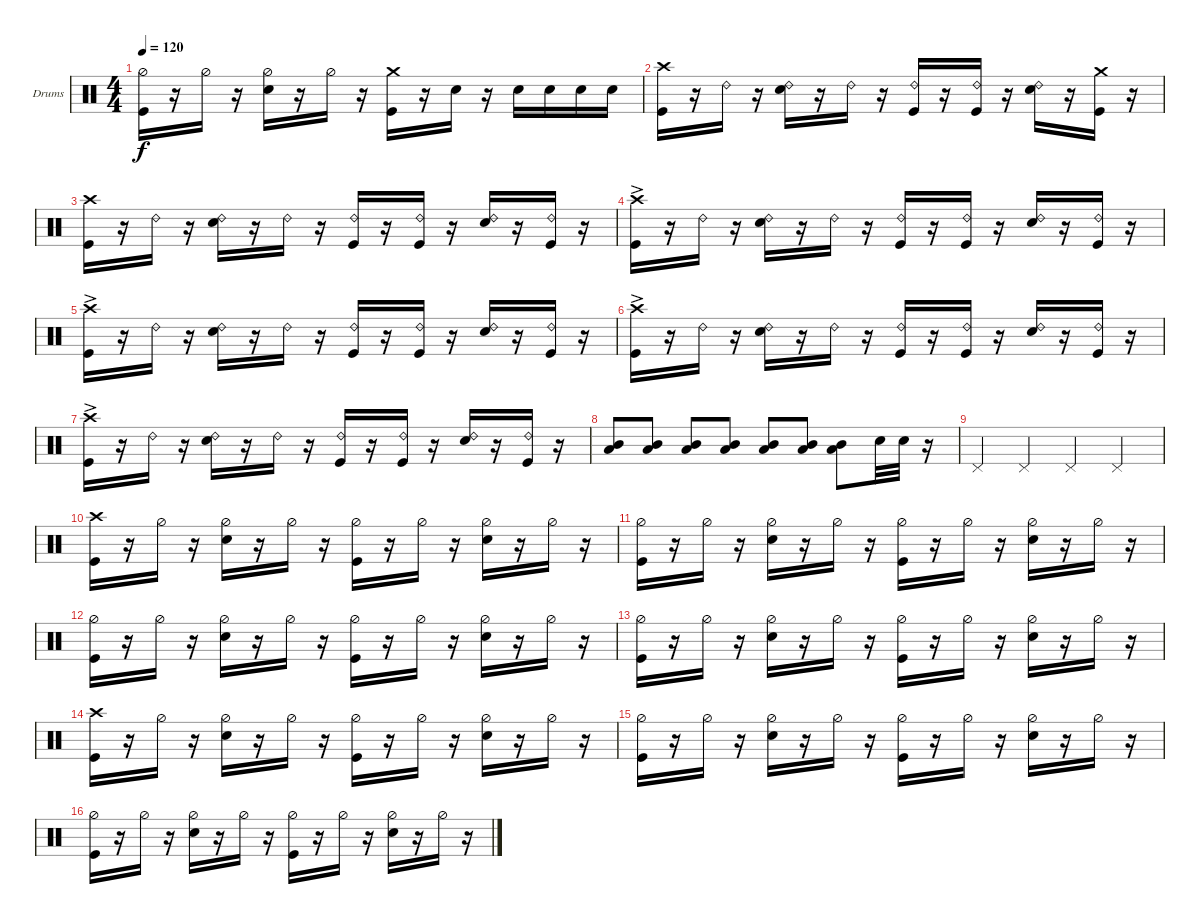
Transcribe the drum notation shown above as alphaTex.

\defaultSystemsLayout 4
\bracketExtendMode groupsimilarinstruments
\firstSystemTrackNameOrientation horizontal
\otherSystemsTrackNameOrientation horizontal
\track ("Drums  SK" "Drums") {instrument percussion}
\staff {score}
\articulation defaults
\ts (4 4)
\tempo 120
\clef neutral
\ks c
("Kick (hit)" "Hi-Hat (half)").16{dy f} r.16 "Hi-Hat (half)".16 r.16 ("Snare (hit) 2" "Hi-Hat (half)").16 r.16 "Hi-Hat (half)".16 r.16 ("Kick (hit)" "Crash medium (hit)").16 r.16 "Snare (hit) 2".16 r.16 "Snare (hit) 2".16 "Snare (hit) 2".16 "Snare (hit) 2".16 "Snare (hit) 2".16 |
("Kick (hit)" "Crash high (hit)").16 r.16 "Ride (bell) 2".16 r.16 ("Snare (hit) 2" "Ride (bell) 2").16 r.16 "Ride (bell) 2".16 r.16 ("Kick (hit)" "Ride (bell) 2").16 r.16 ("Kick (hit)" "Ride (bell) 2").16 r.16 ("Snare (hit) 2" "Ride (bell) 2").16 r.16 ("Kick (hit)" "Crash medium (hit)").16 r.16 |
("Kick (hit)" "Crash high (hit)").16 r.16 "Ride (bell) 2".16 r.16 ("Snare (hit) 2" "Ride (bell) 2").16 r.16 "Ride (bell) 2".16 r.16 ("Kick (hit)" "Ride (bell) 2").16 r.16 ("Kick (hit)" "Ride (bell) 2").16 r.16 ("Snare (hit) 2" "Ride (bell) 2").16 r.16 ("Kick (hit)" "Ride (bell) 2").16 r.16 |
("Kick (hit)"{ac} "Crash high (hit)"{ac}).16 r.16 "Ride (bell) 2".16 r.16 ("Snare (hit) 2" "Ride (bell) 2").16 r.16 "Ride (bell) 2".16 r.16 ("Kick (hit)" "Ride (bell) 2").16 r.16 ("Kick (hit)" "Ride (bell) 2").16 r.16 ("Snare (hit) 2" "Ride (bell) 2").16 r.16 ("Kick (hit)" "Ride (bell) 2").16 r.16 |
("Kick (hit)"{ac} "Crash high (hit)"{ac}).16 r.16 "Ride (bell) 2".16 r.16 ("Snare (hit) 2" "Ride (bell) 2").16 r.16 "Ride (bell) 2".16 r.16 ("Kick (hit)" "Ride (bell) 2").16 r.16 ("Kick (hit)" "Ride (bell) 2").16 r.16 ("Snare (hit) 2" "Ride (bell) 2").16 r.16 ("Kick (hit)" "Ride (bell) 2").16 r.16 |
("Kick (hit)"{ac} "Crash high (hit)"{ac}).16 r.16 "Ride (bell) 2".16 r.16 ("Snare (hit) 2" "Ride (bell) 2").16 r.16 "Ride (bell) 2".16 r.16 ("Kick (hit)" "Ride (bell) 2").16 r.16 ("Kick (hit)" "Ride (bell) 2").16 r.16 ("Snare (hit) 2" "Ride (bell) 2").16 r.16 ("Kick (hit)" "Ride (bell) 2").16 r.16 |
("Kick (hit)"{ac} "Crash high (hit)"{ac}).16 r.16 "Ride (bell) 2".16 r.16 ("Snare (hit) 2" "Ride (bell) 2").16 r.16 "Ride (bell) 2".16 r.16 ("Kick (hit)" "Ride (bell) 2").16 r.16 ("Kick (hit)" "Ride (bell) 2").16 r.16 ("Snare (hit) 2" "Ride (bell) 2").16 r.16 ("Kick (hit)" "Ride (bell) 2").16 r.16 |
("Low Tom (hit)" "Mid Tom (hit)").8 ("Low Tom (hit)" "Mid Tom (hit)").8 ("Low Tom (hit)" "Mid Tom (hit)").8 ("Low Tom (hit)" "Mid Tom (hit)").8 ("Low Tom (hit)" "Mid Tom (hit)").8 ("Low Tom (hit)" "Mid Tom (hit)").8 ("Low Tom (hit)" "Mid Tom (hit)").8 "Snare (hit) 2".32 "Snare (hit) 2".32 r.16 |
"Pedal Hi-Hat (hit)".4 "Pedal Hi-Hat (hit)".4 "Pedal Hi-Hat (hit)".4 "Pedal Hi-Hat (hit)".4 |
("Kick (hit)" "Crash high (hit)").16 r.16 "Hi-Hat (half)".16 r.16 ("Snare (hit) 2" "Hi-Hat (half)").16 r.16 "Hi-Hat (half)".16 r.16 ("Kick (hit)" "Hi-Hat (half)").16 r.16 "Hi-Hat (half)".16 r.16 ("Snare (hit) 2" "Hi-Hat (half)").16 r.16 "Hi-Hat (half)".16 r.16 |
("Kick (hit)" "Hi-Hat (half)").16 r.16 "Hi-Hat (half)".16 r.16 ("Snare (hit) 2" "Hi-Hat (half)").16 r.16 "Hi-Hat (half)".16 r.16 ("Kick (hit)" "Hi-Hat (half)").16 r.16 "Hi-Hat (half)".16 r.16 ("Snare (hit) 2" "Hi-Hat (half)").16 r.16 "Hi-Hat (half)".16 r.16 |
("Kick (hit)" "Hi-Hat (half)").16 r.16 "Hi-Hat (half)".16 r.16 ("Snare (hit) 2" "Hi-Hat (half)").16 r.16 "Hi-Hat (half)".16 r.16 ("Kick (hit)" "Hi-Hat (half)").16 r.16 "Hi-Hat (half)".16 r.16 ("Snare (hit) 2" "Hi-Hat (half)").16 r.16 "Hi-Hat (half)".16 r.16 |
("Kick (hit)" "Hi-Hat (half)").16 r.16 "Hi-Hat (half)".16 r.16 ("Snare (hit) 2" "Hi-Hat (half)").16 r.16 "Hi-Hat (half)".16 r.16 ("Kick (hit)" "Hi-Hat (half)").16 r.16 "Hi-Hat (half)".16 r.16 ("Snare (hit) 2" "Hi-Hat (half)").16 r.16 "Hi-Hat (half)".16 r.16 |
("Kick (hit)" "Crash high (hit)").16 r.16 "Hi-Hat (half)".16 r.16 ("Snare (hit) 2" "Hi-Hat (half)").16 r.16 "Hi-Hat (half)".16 r.16 ("Kick (hit)" "Hi-Hat (half)").16 r.16 "Hi-Hat (half)".16 r.16 ("Snare (hit) 2" "Hi-Hat (half)").16 r.16 "Hi-Hat (half)".16 r.16 |
("Kick (hit)" "Hi-Hat (half)").16 r.16 "Hi-Hat (half)".16 r.16 ("Snare (hit) 2" "Hi-Hat (half)").16 r.16 "Hi-Hat (half)".16 r.16 ("Kick (hit)" "Hi-Hat (half)").16 r.16 "Hi-Hat (half)".16 r.16 ("Snare (hit) 2" "Hi-Hat (half)").16 r.16 "Hi-Hat (half)".16 r.16 |
("Kick (hit)" "Hi-Hat (half)").16 r.16 "Hi-Hat (half)".16 r.16 ("Snare (hit) 2" "Hi-Hat (half)").16 r.16 "Hi-Hat (half)".16 r.16 ("Kick (hit)" "Hi-Hat (half)").16 r.16 "Hi-Hat (half)".16 r.16 ("Snare (hit) 2" "Hi-Hat (half)").16 r.16 "Hi-Hat (half)".16 r.16
